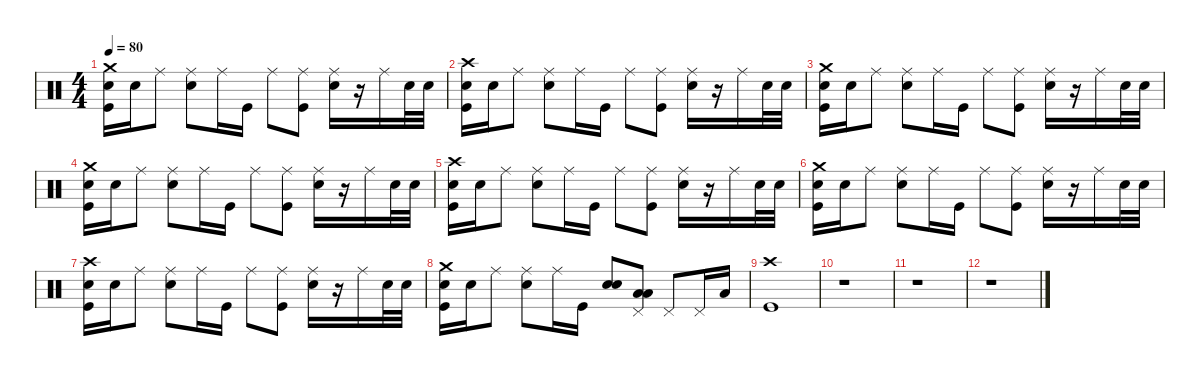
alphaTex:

\defaultSystemsLayout 8
\hideDynamics
\bracketExtendMode groupsimilarinstruments
\singleTrackTrackNamePolicy hidden
\multiTrackTrackNamePolicy hidden
\firstSystemTrackNameMode fullname
\firstSystemTrackNameOrientation horizontal
\otherSystemsTrackNameOrientation horizontal
\track ("Percussion" "drm.") {defaultSystemsLayout 4 instrument percussion}
\staff {score}
\articulation defaults
\ts (4 4)
\tempo 80
\clef neutral
\ks c
("Crash medium (hit)" "Snare (hit) 2" "Kick (hit)").16{dy f} "Snare (hit) 2".16{dy p} "Ride (middle)".8{dy f} ("Ride (middle)" "Snare (hit) 2").8 "Ride (middle)".16 "Kick (hit)".16 "Ride (middle)".8 ("Ride (middle)" "Kick (hit)").8 ("Ride (middle)" "Snare (hit) 2").16 r.16 "Ride (middle)".16 "Snare (hit) 2".32{dy p} "Snare (hit) 2".32 |
("Crash high (hit)" "Snare (hit) 2" "Kick (hit)").16{dy f} "Snare (hit) 2".16{dy p} "Ride (middle)".8{dy f} ("Ride (middle)" "Snare (hit) 2").8 "Ride (middle)".16 "Kick (hit)".16 "Ride (middle)".8 ("Ride (middle)" "Kick (hit)").8 ("Ride (middle)" "Snare (hit) 2").16 r.16 "Ride (middle)".16 "Snare (hit) 2".32{dy p} "Snare (hit) 2".32 |
("Crash medium (hit)" "Snare (hit) 2" "Kick (hit)").16{dy f} "Snare (hit) 2".16{dy p} "Ride (middle)".8{dy f} ("Ride (middle)" "Snare (hit) 2").8 "Ride (middle)".16 "Kick (hit)".16 "Ride (middle)".8 ("Ride (middle)" "Kick (hit)").8 ("Ride (middle)" "Snare (hit) 2").16 r.16 "Ride (middle)".16 "Snare (hit) 2".32{dy p} "Snare (hit) 2".32 |
("Crash medium (hit)" "Snare (hit) 2" "Kick (hit)").16{dy f} "Snare (hit) 2".16{dy p} "Ride (middle)".8{dy f} ("Ride (middle)" "Snare (hit) 2").8 "Ride (middle)".16 "Kick (hit)".16 "Ride (middle)".8 ("Ride (middle)" "Kick (hit)").8 ("Ride (middle)" "Snare (hit) 2").16 r.16 "Ride (middle)".16 "Snare (hit) 2".32{dy p} "Snare (hit) 2".32 |
("Crash high (hit)" "Snare (hit) 2" "Kick (hit)").16{dy f} "Snare (hit) 2".16{dy p} "Ride (middle)".8{dy f} ("Ride (middle)" "Snare (hit) 2").8 "Ride (middle)".16 "Kick (hit)".16 "Ride (middle)".8 ("Ride (middle)" "Kick (hit)").8 ("Ride (middle)" "Snare (hit) 2").16 r.16 "Ride (middle)".16 "Snare (hit) 2".32{dy p} "Snare (hit) 2".32 |
("Crash medium (hit)" "Snare (hit) 2" "Kick (hit)").16{dy f} "Snare (hit) 2".16{dy p} "Ride (middle)".8{dy f} ("Ride (middle)" "Snare (hit) 2").8 "Ride (middle)".16 "Kick (hit)".16 "Ride (middle)".8 ("Ride (middle)" "Kick (hit)").8 ("Ride (middle)" "Snare (hit) 2").16 r.16 "Ride (middle)".16 "Snare (hit) 2".32{dy p} "Snare (hit) 2".32 |
("Crash high (hit)" "Snare (hit) 2" "Kick (hit)").16{dy f} "Snare (hit) 2".16{dy p} "Ride (middle)".8{dy f} ("Ride (middle)" "Snare (hit) 2").8 "Ride (middle)".16 "Kick (hit)".16 "Ride (middle)".8 ("Ride (middle)" "Kick (hit)").8 ("Ride (middle)" "Snare (hit) 2").16 r.16 "Ride (middle)".16 "Snare (hit) 2".32{dy p} "Snare (hit) 2".32 |
("Crash medium (hit)" "Snare (hit) 2" "Kick (hit)").16{dy f} "Snare (hit) 2".16{dy p} "Ride (middle)".8{dy f} ("Ride (middle)" "Snare (hit) 2").8 "Ride (middle)".16 "Kick (hit)".16 ("Snare (hit) 2" "Snare (hit) 2").8 ("Pedal Hi-Hat (hit)" "Low Tom (hit)" "Low Tom (hit)").8 "Pedal Hi-Hat (hit)".8 "Pedal Hi-Hat (hit)".16 "Low Tom (hit)".16 |
("Crash high (hit)" "Kick (hit)").1 |
r.1 |
r.1 |
r.1
